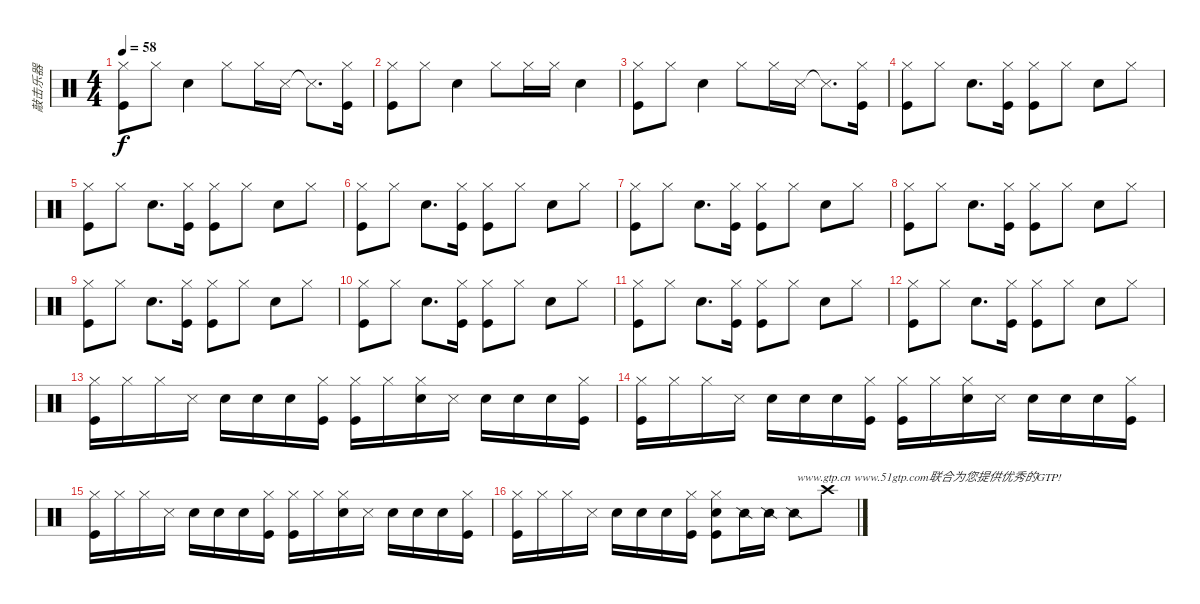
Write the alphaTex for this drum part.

\track ("敲击乐器" "敲击乐器") {instrument percussion}
\staff {score}
\articulation defaults
\ts (4 4)
\tempo 58
\clef neutral
\ks c
("Hi-Hat (closed)" "Kick (hit)").8{dy f} "Hi-Hat (closed)".8 "Hand Clap (hit)".4 "Hi-Hat (closed)".8 "Hi-Hat (closed)".16 "Snare (side stick) 3".16 "Snare (side stick) 3"{t}.8{d} ("Hi-Hat (closed)" "Kick (hit)").16 |
("Hi-Hat (closed)" "Kick (hit)").8 "Hi-Hat (closed)".8 "Hand Clap (hit)".4 "Hi-Hat (closed)".8 "Hi-Hat (closed)".16 "Hi-Hat (closed)".16 "Hand Clap (hit)".4 |
("Hi-Hat (closed)" "Kick (hit)").8 "Hi-Hat (closed)".8 "Hand Clap (hit)".4 "Hi-Hat (closed)".8 "Hi-Hat (closed)".16 "Snare (side stick) 3".16 "Snare (side stick) 3"{t}.8{d} ("Hi-Hat (closed)" "Kick (hit)").16 |
("Hi-Hat (closed)" "Kick (hit)").8 "Hi-Hat (closed)".8 "Hand Clap (hit)".8{d} ("Hi-Hat (closed)" "Kick (hit)").16 ("Hi-Hat (closed)" "Kick (hit)").8 "Hi-Hat (closed)".8 "Hand Clap (hit)".8 "Hi-Hat (closed)".8 |
("Hi-Hat (closed)" "Kick (hit)").8 "Hi-Hat (closed)".8 "Hand Clap (hit)".8{d} ("Hi-Hat (closed)" "Kick (hit)").16 ("Hi-Hat (closed)" "Kick (hit)").8 "Hi-Hat (closed)".8 "Hand Clap (hit)".8 "Hi-Hat (closed)".8 |
("Hi-Hat (closed)" "Kick (hit)").8 "Hi-Hat (closed)".8 "Hand Clap (hit)".8{d} ("Hi-Hat (closed)" "Kick (hit)").16 ("Hi-Hat (closed)" "Kick (hit)").8 "Hi-Hat (closed)".8 "Hand Clap (hit)".8 "Hi-Hat (closed)".8 |
("Hi-Hat (closed)" "Kick (hit)").8 "Hi-Hat (closed)".8 "Hand Clap (hit)".8{d} ("Hi-Hat (closed)" "Kick (hit)").16 ("Hi-Hat (closed)" "Kick (hit)").8 "Hi-Hat (closed)".8 "Hand Clap (hit)".8 "Hi-Hat (closed)".8 |
("Hi-Hat (closed)" "Kick (hit)").8 "Hi-Hat (closed)".8 "Hand Clap (hit)".8{d} ("Hi-Hat (closed)" "Kick (hit)").16 ("Hi-Hat (closed)" "Kick (hit)").8 "Hi-Hat (closed)".8 "Hand Clap (hit)".8 "Hi-Hat (closed)".8 |
("Hi-Hat (closed)" "Kick (hit)").8 "Hi-Hat (closed)".8 "Hand Clap (hit)".8{d} ("Hi-Hat (closed)" "Kick (hit)").16 ("Hi-Hat (closed)" "Kick (hit)").8 "Hi-Hat (closed)".8 "Hand Clap (hit)".8 "Hi-Hat (closed)".8 |
("Hi-Hat (closed)" "Kick (hit)").8 "Hi-Hat (closed)".8 "Hand Clap (hit)".8{d} ("Hi-Hat (closed)" "Kick (hit)").16 ("Hi-Hat (closed)" "Kick (hit)").8 "Hi-Hat (closed)".8 "Hand Clap (hit)".8 "Hi-Hat (closed)".8 |
("Hi-Hat (closed)" "Kick (hit)").8 "Hi-Hat (closed)".8 "Hand Clap (hit)".8{d} ("Hi-Hat (closed)" "Kick (hit)").16 ("Hi-Hat (closed)" "Kick (hit)").8 "Hi-Hat (closed)".8 "Hand Clap (hit)".8 "Hi-Hat (closed)".8 |
("Hi-Hat (closed)" "Kick (hit)").8 "Hi-Hat (closed)".8 "Hand Clap (hit)".8{d} ("Hi-Hat (closed)" "Kick (hit)").16 ("Hi-Hat (closed)" "Kick (hit)").8 "Hi-Hat (closed)".8 "Hand Clap (hit)".8 "Hi-Hat (closed)".8 |
("Hi-Hat (closed)" "Kick (hit)").16 "Hi-Hat (closed)".16 "Hi-Hat (closed)".16 "Snare (side stick) 3".16 "Hand Clap (hit)".16 "Hand Clap (hit)".16 "Hand Clap (hit)".16 ("Hi-Hat (closed)" "Kick (hit)").16 ("Hi-Hat (closed)" "Kick (hit)").16 "Hi-Hat (closed)".16 ("Hi-Hat (closed)" "Snare (hit) 2").16 "Snare (side stick) 3".16 "Hand Clap (hit)".16 "Hand Clap (hit)".16 "Hand Clap (hit)".16 ("Hi-Hat (closed)" "Kick (hit)").16 |
("Hi-Hat (closed)" "Kick (hit)").16 "Hi-Hat (closed)".16 "Hi-Hat (closed)".16 "Snare (side stick) 3".16 "Hand Clap (hit)".16 "Hand Clap (hit)".16 "Hand Clap (hit)".16 ("Hi-Hat (closed)" "Kick (hit)").16 ("Hi-Hat (closed)" "Kick (hit)").16 "Hi-Hat (closed)".16 ("Hi-Hat (closed)" "Snare (hit) 2").16 "Snare (side stick) 3".16 "Hand Clap (hit)".16 "Hand Clap (hit)".16 "Hand Clap (hit)".16 ("Hi-Hat (closed)" "Kick (hit)").16 |
("Hi-Hat (closed)" "Kick (hit)").16 "Hi-Hat (closed)".16 "Hi-Hat (closed)".16 "Snare (side stick) 3".16 "Hand Clap (hit)".16 "Hand Clap (hit)".16 "Hand Clap (hit)".16 ("Hi-Hat (closed)" "Kick (hit)").16 ("Hi-Hat (closed)" "Kick (hit)").16 "Hi-Hat (closed)".16 ("Hi-Hat (closed)" "Snare (hit) 2").16 "Snare (side stick) 3".16 "Hand Clap (hit)".16 "Hand Clap (hit)".16 "Hand Clap (hit)".16 ("Hi-Hat (closed)" "Kick (hit)").16 |
("Hi-Hat (closed)" "Kick (hit)").16 "Hi-Hat (closed)".16 "Hi-Hat (closed)".16 "Snare (side stick) 3".16 "Hand Clap (hit)".16 "Hand Clap (hit)".16 "Hand Clap (hit)".16 ("Hi-Hat (closed)" "Kick (hit)").16 ("Hi-Hat (closed)" "Snare (hit) 2" "Kick (hit)").8 "Snare (side stick) 2".16 "Snare (side stick) 2".16 "Snare (side stick) 2".8{txt "www.gtp.cn www.51gtp.com联合为您提供优秀的GTP!"} "Crash high (hit)".8
